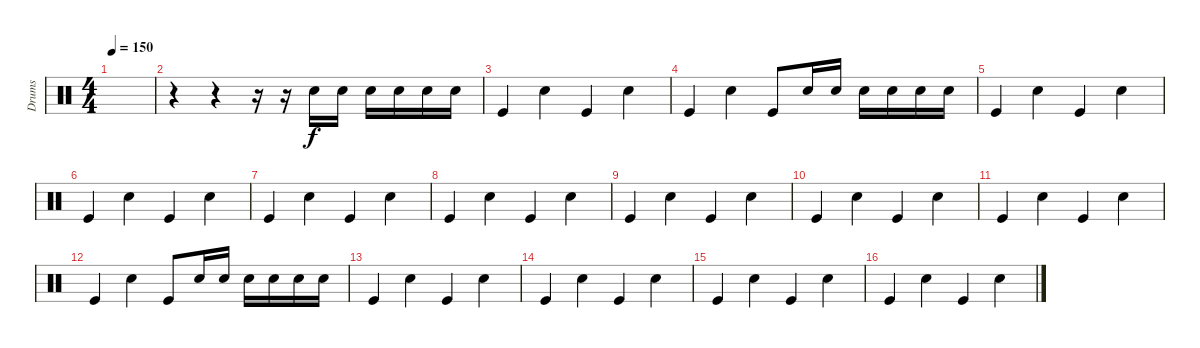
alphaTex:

\track ("Drums" "Drums") {instrument percussion}
\staff {score}
\articulation defaults
\ts (4 4)
\tempo 150
\clef neutral
\ks c
|
r.4 r.4 r.16 r.16 "Snare (hit) 2".16 "Snare (hit) 2".16 "Snare (hit) 2".16 "Snare (hit) 2".16 "Snare (hit) 2".16 "Snare (hit) 2".16 |
"Kick (hit)".4 "Snare (hit) 2".4 "Kick (hit)".4 "Snare (hit) 2".4 |
"Kick (hit)".4 "Snare (hit) 2".4 "Kick (hit)".8 "Snare (hit) 2".16 "Snare (hit) 2".16 "Snare (hit) 2".16 "Snare (hit) 2".16 "Snare (hit) 2".16 "Snare (hit) 2".16 |
"Kick (hit)".4 "Snare (hit) 2".4 "Kick (hit)".4 "Snare (hit) 2".4 |
"Kick (hit)".4 "Snare (hit) 2".4 "Kick (hit)".4 "Snare (hit) 2".4 |
"Kick (hit)".4 "Snare (hit) 2".4 "Kick (hit)".4 "Snare (hit) 2".4 |
"Kick (hit)".4 "Snare (hit) 2".4 "Kick (hit)".4 "Snare (hit) 2".4 |
"Kick (hit)".4 "Snare (hit) 2".4 "Kick (hit)".4 "Snare (hit) 2".4 |
"Kick (hit)".4 "Snare (hit) 2".4 "Kick (hit)".4 "Snare (hit) 2".4 |
"Kick (hit)".4 "Snare (hit) 2".4 "Kick (hit)".4 "Snare (hit) 2".4 |
"Kick (hit)".4 "Snare (hit) 2".4 "Kick (hit)".8 "Snare (hit) 2".16 "Snare (hit) 2".16 "Snare (hit) 2".16 "Snare (hit) 2".16 "Snare (hit) 2".16 "Snare (hit) 2".16 |
"Kick (hit)".4 "Snare (hit) 2".4 "Kick (hit)".4 "Snare (hit) 2".4 |
"Kick (hit)".4 "Snare (hit) 2".4 "Kick (hit)".4 "Snare (hit) 2".4 |
"Kick (hit)".4 "Snare (hit) 2".4 "Kick (hit)".4 "Snare (hit) 2".4 |
"Kick (hit)".4 "Snare (hit) 2".4 "Kick (hit)".4 "Snare (hit) 2".4
